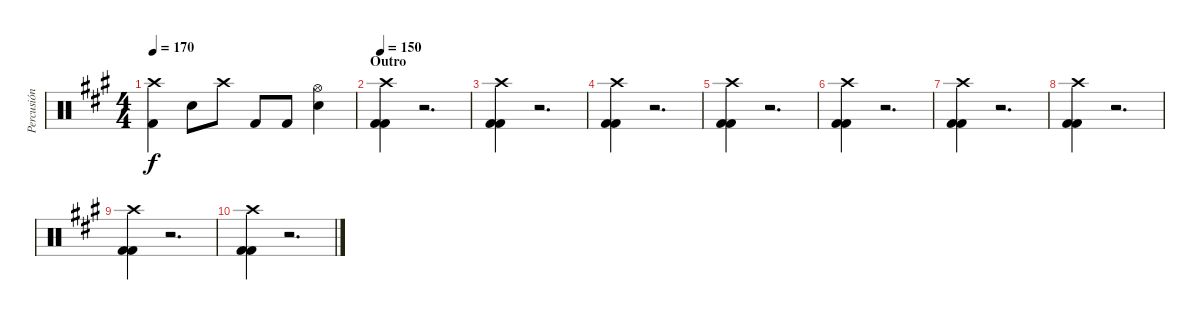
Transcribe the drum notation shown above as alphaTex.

\track ("Percusión" "Percusión") {instrument percussion}
\staff {score}
\articulation defaults
\ts (4 4)
\tempo 170
\clef neutral
\ks a
("Crash high (hit)" "Kick (hit) 2").4{dy f} "Snare (hit) 2".8 "Crash high (hit)".8 "Kick (hit) 2".8 "Kick (hit) 2".8 ("Hi-Hat (open)" "Snare (hit) 2").4 |
\section ("" "Outro")
\tempo 150
("Crash high (hit)" "Kick (hit) 2" "Kick (hit) 2").4 r.2{d} |
("Crash high (hit)" "Kick (hit) 2" "Kick (hit) 2").4 r.2{d} |
("Crash high (hit)" "Kick (hit) 2" "Kick (hit) 2").4 r.2{d} |
("Crash high (hit)" "Kick (hit) 2" "Kick (hit) 2").4 r.2{d} |
("Crash high (hit)" "Kick (hit) 2" "Kick (hit) 2").4 r.2{d} |
("Crash high (hit)" "Kick (hit) 2" "Kick (hit) 2").4 r.2{d} |
("Crash high (hit)" "Kick (hit) 2" "Kick (hit) 2").4 r.2{d} |
("Crash high (hit)" "Kick (hit) 2" "Kick (hit) 2").4 r.2{d} |
("Crash high (hit)" "Kick (hit) 2" "Kick (hit) 2").4 r.2{d}
